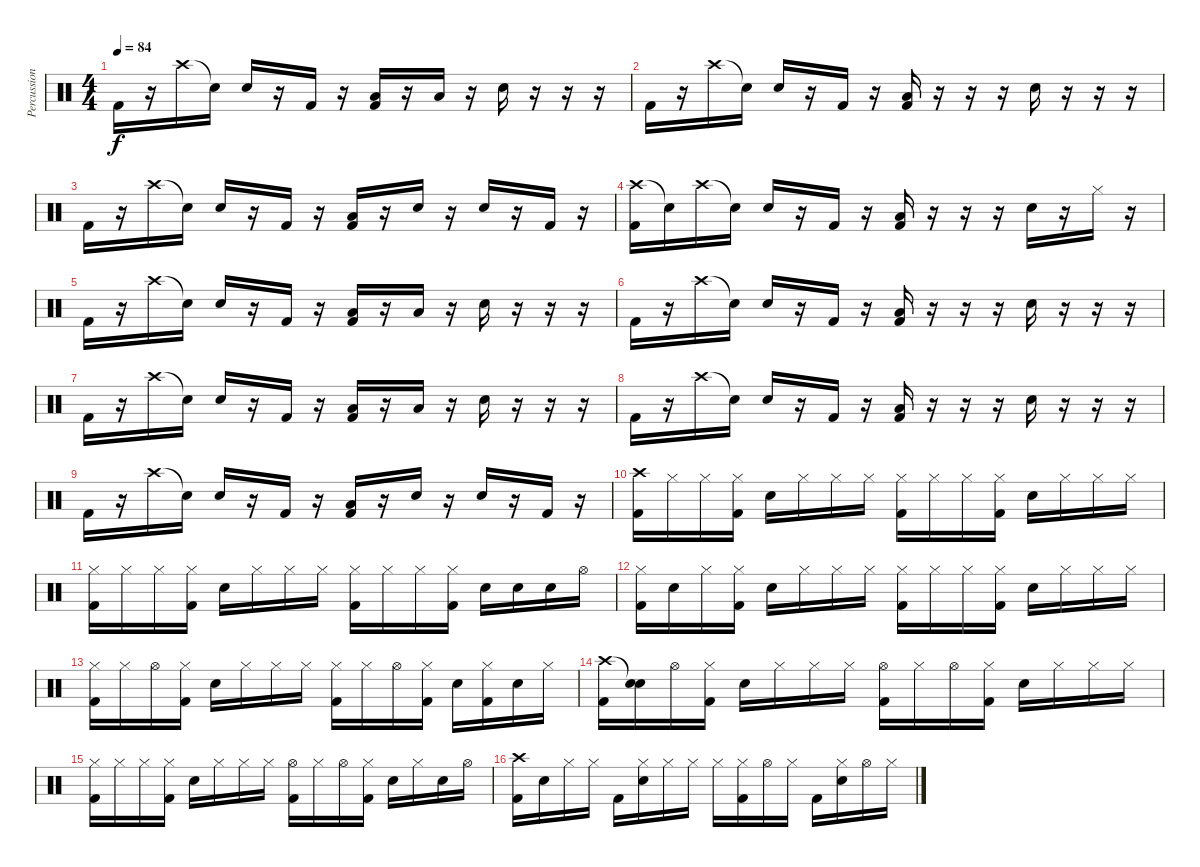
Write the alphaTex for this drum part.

\track ("Percussion" "Percussion") {instrument percussion}
\staff {score}
\articulation defaults
\ts (4 4)
\tempo 84
\clef neutral
\ks c "Kick (hit) 2".16{dy f}
r.16 "Crash high (hit)".16 "Snare (hit)"{t}.16 "Snare (hit) 2".16 r.16 "Kick (hit) 2".16 r.16 ("Low Tom (hit)" "Kick (hit) 2").16 r.16 "Low Floor Tom (hit)".16 r.16 "Snare (hit) 2".16 r.16 r.16 r.16 |
"Kick (hit) 2".16 r.16 "Crash high (hit)".16 "Snare (hit)"{t}.16 "Snare (hit) 2".16 r.16 "Kick (hit) 2".16 r.16 ("Low Floor Tom (hit)" "Kick (hit) 2").16 r.16 r.16 r.16 "Snare (hit) 2".16 r.16 r.16 r.16 |
"Kick (hit) 2".16 r.16 "Crash high (hit)".16 "Snare (hit)"{t}.16 "Snare (hit) 2".16 r.16 "Kick (hit) 2".16 r.16 ("Low Floor Tom (hit)" "Kick (hit) 2").16 r.16 "Snare (hit) 2".16 r.16 "Snare (hit) 2".16 r.16 "Kick (hit) 2".16 r.16 |
("Crash high (hit)" "Kick (hit) 2").16 "Snare (hit)"{t}.16 "Crash high (hit)".16 "Snare (hit)"{t}.16 "Snare (hit) 2".16 r.16 "Kick (hit) 2".16 r.16 ("Low Floor Tom (hit)" "Kick (hit) 2").16 r.16 r.16 r.16 "Snare (hit) 2".16 r.16 "Hi-Hat (closed)".16 r.16 |
"Kick (hit) 2".16 r.16 "Crash high (hit)".16 "Snare (hit)"{t}.16 "Snare (hit) 2".16 r.16 "Kick (hit) 2".16 r.16 ("Low Tom (hit)" "Kick (hit) 2").16 r.16 "Low Floor Tom (hit)".16 r.16 "Snare (hit) 2".16 r.16 r.16 r.16 |
"Kick (hit) 2".16 r.16 "Crash high (hit)".16 "Snare (hit)"{t}.16 "Snare (hit) 2".16 r.16 "Kick (hit) 2".16 r.16 ("Low Floor Tom (hit)" "Kick (hit) 2").16 r.16 r.16 r.16 "Snare (hit) 2".16 r.16 r.16 r.16 |
"Kick (hit) 2".16 r.16 "Crash high (hit)".16 "Snare (hit)"{t}.16 "Snare (hit) 2".16 r.16 "Kick (hit) 2".16 r.16 ("Low Tom (hit)" "Kick (hit) 2").16 r.16 "Low Floor Tom (hit)".16 r.16 "Snare (hit) 2".16 r.16 r.16 r.16 |
"Kick (hit) 2".16 r.16 "Crash high (hit)".16 "Snare (hit)"{t}.16 "Snare (hit) 2".16 r.16 "Kick (hit) 2".16 r.16 ("Low Floor Tom (hit)" "Kick (hit) 2").16 r.16 r.16 r.16 "Snare (hit) 2".16 r.16 r.16 r.16 |
"Kick (hit) 2".16 r.16 "Crash high (hit)".16 "Snare (hit)"{t}.16 "Snare (hit) 2".16 r.16 "Kick (hit) 2".16 r.16 ("Low Floor Tom (hit)" "Kick (hit) 2").16 r.16 "Snare (hit) 2".16 r.16 "Snare (hit) 2".16 r.16 "Kick (hit) 2".16 r.16 |
("Crash high (hit)" "Kick (hit) 2").16 "Hi-Hat (closed)".16 "Hi-Hat (closed)".16 ("Hi-Hat (closed)" "Kick (hit) 2").16 "Snare (hit) 2".16 "Hi-Hat (closed)".16 "Hi-Hat (closed)".16 "Hi-Hat (closed)".16 ("Hi-Hat (closed)" "Kick (hit) 2").16 "Hi-Hat (closed)".16 "Hi-Hat (closed)".16 ("Hi-Hat (closed)" "Kick (hit) 2").16 "Snare (hit) 2".16 "Hi-Hat (closed)".16 "Hi-Hat (closed)".16 "Hi-Hat (closed)".16 |
("Hi-Hat (closed)" "Kick (hit) 2").16 "Hi-Hat (closed)".16 "Hi-Hat (closed)".16 ("Hi-Hat (closed)" "Kick (hit) 2").16 "Snare (hit) 2".16 "Hi-Hat (closed)".16 "Hi-Hat (closed)".16 "Hi-Hat (closed)".16 ("Hi-Hat (closed)" "Kick (hit) 2").16 "Hi-Hat (closed)".16 "Hi-Hat (closed)".16 ("Hi-Hat (closed)" "Kick (hit) 2").16 "Snare (hit) 2".16 "Snare (hit) 2".16 "Snare (hit) 2".16 "Hi-Hat (open)".16 |
("Hi-Hat (closed)" "Kick (hit) 2").16 "Snare (hit) 2".16 "Hi-Hat (closed)".16 ("Hi-Hat (closed)" "Kick (hit) 2").16 "Snare (hit) 2".16 "Hi-Hat (closed)".16 "Hi-Hat (closed)".16 "Hi-Hat (closed)".16 ("Hi-Hat (closed)" "Kick (hit) 2").16 "Hi-Hat (closed)".16 "Hi-Hat (closed)".16 ("Hi-Hat (closed)" "Kick (hit) 2").16 "Snare (hit) 2".16 "Hi-Hat (closed)".16 "Hi-Hat (closed)".16 "Hi-Hat (closed)".16 |
("Hi-Hat (closed)" "Kick (hit) 2").16 "Hi-Hat (closed)".16 "Hi-Hat (open)".16 ("Hi-Hat (closed)" "Kick (hit) 2").16 "Snare (hit) 2".16 "Hi-Hat (closed)".16 "Hi-Hat (closed)".16 "Hi-Hat (closed)".16 ("Hi-Hat (closed)" "Kick (hit) 2").16 "Hi-Hat (closed)".16 "Hi-Hat (open)".16 ("Hi-Hat (closed)" "Kick (hit) 2").16 "Snare (hit) 2".16 ("Hi-Hat (closed)" "Kick (hit) 2").16 "Snare (hit) 2".16 "Hi-Hat (closed)".16 |
("Crash high (hit)" "Kick (hit) 2").16 ("Snare (hit)"{t} "Snare (hit) 2").16 "Hi-Hat (open)".16 ("Hi-Hat (closed)" "Kick (hit) 2").16 "Snare (hit) 2".16 "Hi-Hat (closed)".16 "Hi-Hat (closed)".16 "Hi-Hat (closed)".16 ("Hi-Hat (open)" "Kick (hit) 2").16 "Hi-Hat (closed)".16 "Hi-Hat (open)".16 ("Hi-Hat (closed)" "Kick (hit) 2").16 "Snare (hit) 2".16 "Hi-Hat (closed)".16 "Hi-Hat (closed)".16 "Hi-Hat (closed)".16 |
("Hi-Hat (closed)" "Kick (hit) 2").16 "Hi-Hat (closed)".16 "Hi-Hat (closed)".16 ("Hi-Hat (closed)" "Kick (hit) 2").16 "Snare (hit) 2".16 "Hi-Hat (closed)".16 "Hi-Hat (closed)".16 "Hi-Hat (closed)".16 ("Hi-Hat (open)" "Kick (hit) 2").16 "Hi-Hat (closed)".16 "Hi-Hat (open)".16 ("Hi-Hat (closed)" "Kick (hit) 2").16 "Snare (hit) 2".16 "Hi-Hat (closed)".16 "Snare (hit) 2".16 "Hi-Hat (open)".16 |
("Crash high (hit)" "Kick (hit) 2").16 "Snare (hit) 2".16 "Hi-Hat (closed)".16 "Hi-Hat (closed)".16 "Kick (hit) 2".16 ("Hi-Hat (closed)" "Snare (hit) 2").16 "Hi-Hat (closed)".16 "Hi-Hat (closed)".16 "Hi-Hat (closed)".16 ("Hi-Hat (closed)" "Kick (hit) 2").16 "Hi-Hat (open)".16 "Hi-Hat (closed)".16 "Kick (hit) 2".16 ("Hi-Hat (closed)" "Snare (hit) 2").16 "Hi-Hat (open)".16 "Hi-Hat (closed)".16
